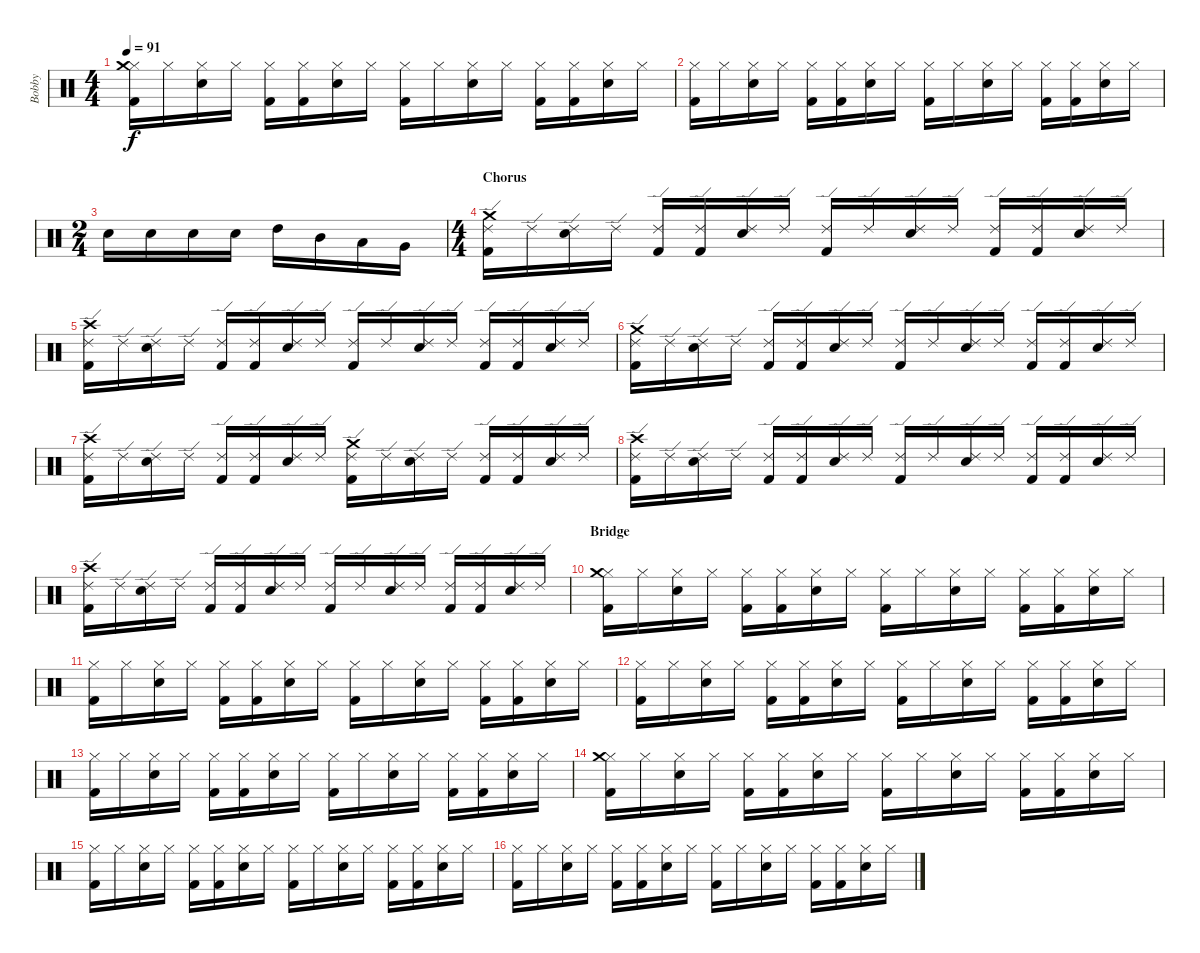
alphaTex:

\track ("Bobby" "Bobby") {instrument percussion}
\staff {score}
\articulation defaults
\ts (4 4)
\tempo 91
\clef neutral
\ks c
("Hi-Hat (closed)" "Crash medium (hit)" "Kick (hit) 2").16{dy f} "Hi-Hat (closed)".16 ("Hi-Hat (closed)" "Snare (hit) 2").16 "Hi-Hat (closed)".16 ("Hi-Hat (closed)" "Kick (hit) 2").16 ("Hi-Hat (closed)" "Kick (hit) 2").16 ("Hi-Hat (closed)" "Snare (hit) 2").16 "Hi-Hat (closed)".16 ("Hi-Hat (closed)" "Kick (hit) 2").16 "Hi-Hat (closed)".16 ("Hi-Hat (closed)" "Snare (hit) 2").16 "Hi-Hat (closed)".16 ("Hi-Hat (closed)" "Kick (hit) 2").16 ("Hi-Hat (closed)" "Kick (hit) 2").16 ("Hi-Hat (closed)" "Snare (hit) 2").16 "Hi-Hat (closed)".16 |
("Hi-Hat (closed)" "Kick (hit) 2").16 "Hi-Hat (closed)".16 ("Hi-Hat (closed)" "Snare (hit) 2").16 "Hi-Hat (closed)".16 ("Hi-Hat (closed)" "Kick (hit) 2").16 ("Hi-Hat (closed)" "Kick (hit) 2").16 ("Hi-Hat (closed)" "Snare (hit) 2").16 "Hi-Hat (closed)".16 ("Hi-Hat (closed)" "Kick (hit) 2").16 "Hi-Hat (closed)".16 ("Hi-Hat (closed)" "Snare (hit) 2").16 "Hi-Hat (closed)".16 ("Hi-Hat (closed)" "Kick (hit) 2").16 ("Hi-Hat (closed)" "Kick (hit) 2").16 ("Hi-Hat (closed)" "Snare (hit) 2").16 "Hi-Hat (closed)".16 |
\ts (2 4)
"Snare (hit) 2".16 "Snare (hit) 2".16 "Snare (hit) 2".16 "Snare (hit) 2".16 "High Tom (hit)".16 "Mid Tom (hit)".16 "Low Tom (hit)".16 "Very Low Tom (hit)".16 |
\ts (4 4)
\section ("" "Chorus")
("Ride (edge) 2" "Crash medium (hit)" "Kick (hit) 2").16 "Ride (edge) 2".16 ("Ride (edge) 2" "Snare (hit) 2").16 "Ride (edge) 2".16 ("Ride (edge) 2" "Kick (hit) 2").16 ("Ride (edge) 2" "Kick (hit) 2").16 ("Ride (edge) 2" "Snare (hit) 2").16 "Ride (edge) 2".16 ("Ride (edge) 2" "Kick (hit) 2").16 "Ride (edge) 2".16 ("Ride (edge) 2" "Snare (hit) 2").16 "Ride (edge) 2".16 ("Ride (edge) 2" "Kick (hit) 2").16 ("Ride (edge) 2" "Kick (hit) 2").16 ("Ride (edge) 2" "Snare (hit) 2").16 "Ride (edge) 2".16 |
("Ride (edge) 2" "Crash high (hit)" "Kick (hit) 2").16 "Ride (edge) 2".16 ("Ride (edge) 2" "Snare (hit) 2").16 "Ride (edge) 2".16 ("Ride (edge) 2" "Kick (hit) 2").16 ("Ride (edge) 2" "Kick (hit) 2").16 ("Ride (edge) 2" "Snare (hit) 2").16 "Ride (edge) 2".16 ("Ride (edge) 2" "Kick (hit) 2").16 "Ride (edge) 2".16 ("Ride (edge) 2" "Snare (hit) 2").16 "Ride (edge) 2".16 ("Ride (edge) 2" "Kick (hit) 2").16 ("Ride (edge) 2" "Kick (hit) 2").16 ("Ride (edge) 2" "Snare (hit) 2").16 "Ride (edge) 2".16 |
("Ride (edge) 2" "Crash medium (hit)" "Kick (hit) 2").16 "Ride (edge) 2".16 ("Ride (edge) 2" "Snare (hit) 2").16 "Ride (edge) 2".16 ("Ride (edge) 2" "Kick (hit) 2").16 ("Ride (edge) 2" "Kick (hit) 2").16 ("Ride (edge) 2" "Snare (hit) 2").16 "Ride (edge) 2".16 ("Ride (edge) 2" "Kick (hit) 2").16 "Ride (edge) 2".16 ("Ride (edge) 2" "Snare (hit) 2").16 "Ride (edge) 2".16 ("Ride (edge) 2" "Kick (hit) 2").16 ("Ride (edge) 2" "Kick (hit) 2").16 ("Ride (edge) 2" "Snare (hit) 2").16 "Ride (edge) 2".16 |
("Ride (edge) 2" "Crash high (hit)" "Kick (hit) 2").16 "Ride (edge) 2".16 ("Ride (edge) 2" "Snare (hit) 2").16 "Ride (edge) 2".16 ("Ride (edge) 2" "Kick (hit) 2").16 ("Ride (edge) 2" "Kick (hit) 2").16 ("Ride (edge) 2" "Snare (hit) 2").16 "Ride (edge) 2".16 ("Ride (edge) 2" "Crash medium (hit)" "Kick (hit) 2").16 "Ride (edge) 2".16 ("Ride (edge) 2" "Snare (hit) 2").16 "Ride (edge) 2".16 ("Ride (edge) 2" "Kick (hit) 2").16 ("Ride (edge) 2" "Kick (hit) 2").16 ("Ride (edge) 2" "Snare (hit) 2").16 "Ride (edge) 2".16 |
("Ride (edge) 2" "Crash high (hit)" "Kick (hit) 2").16 "Ride (edge) 2".16 ("Ride (edge) 2" "Snare (hit) 2").16 "Ride (edge) 2".16 ("Ride (edge) 2" "Kick (hit) 2").16 ("Ride (edge) 2" "Kick (hit) 2").16 ("Ride (edge) 2" "Snare (hit) 2").16 "Ride (edge) 2".16 ("Ride (edge) 2" "Kick (hit) 2").16 "Ride (edge) 2".16 ("Ride (edge) 2" "Snare (hit) 2").16 "Ride (edge) 2".16 ("Ride (edge) 2" "Kick (hit) 2").16 ("Ride (edge) 2" "Kick (hit) 2").16 ("Ride (edge) 2" "Snare (hit) 2").16 "Ride (edge) 2".16 |
("Ride (edge) 2" "Crash high (hit)" "Kick (hit) 2").16 "Ride (edge) 2".16 ("Ride (edge) 2" "Snare (hit) 2").16 "Ride (edge) 2".16 ("Ride (edge) 2" "Kick (hit) 2").16 ("Ride (edge) 2" "Kick (hit) 2").16 ("Ride (edge) 2" "Snare (hit) 2").16 "Ride (edge) 2".16 ("Ride (edge) 2" "Kick (hit) 2").16 "Ride (edge) 2".16 ("Ride (edge) 2" "Snare (hit) 2").16 "Ride (edge) 2".16 ("Ride (edge) 2" "Kick (hit) 2").16 ("Ride (edge) 2" "Kick (hit) 2").16 ("Ride (edge) 2" "Snare (hit) 2").16 "Ride (edge) 2".16 |
\section ("" "Bridge")
("Hi-Hat (closed)" "Crash medium (hit)" "Kick (hit) 2").16 "Hi-Hat (closed)".16 ("Hi-Hat (closed)" "Snare (hit) 2").16 "Hi-Hat (closed)".16 ("Hi-Hat (closed)" "Kick (hit) 2").16 ("Hi-Hat (closed)" "Kick (hit) 2").16 ("Hi-Hat (closed)" "Snare (hit) 2").16 "Hi-Hat (closed)".16 ("Hi-Hat (closed)" "Kick (hit) 2").16 "Hi-Hat (closed)".16 ("Hi-Hat (closed)" "Snare (hit) 2").16 "Hi-Hat (closed)".16 ("Hi-Hat (closed)" "Kick (hit) 2").16 ("Hi-Hat (closed)" "Kick (hit) 2").16 ("Hi-Hat (closed)" "Snare (hit) 2").16 "Hi-Hat (closed)".16 |
("Hi-Hat (closed)" "Kick (hit) 2").16 "Hi-Hat (closed)".16 ("Hi-Hat (closed)" "Snare (hit) 2").16 "Hi-Hat (closed)".16 ("Hi-Hat (closed)" "Kick (hit) 2").16 ("Hi-Hat (closed)" "Kick (hit) 2").16 ("Hi-Hat (closed)" "Snare (hit) 2").16 "Hi-Hat (closed)".16 ("Hi-Hat (closed)" "Kick (hit) 2").16 "Hi-Hat (closed)".16 ("Hi-Hat (closed)" "Snare (hit) 2").16 "Hi-Hat (closed)".16 ("Hi-Hat (closed)" "Kick (hit) 2").16 ("Hi-Hat (closed)" "Kick (hit) 2").16 ("Hi-Hat (closed)" "Snare (hit) 2").16 "Hi-Hat (closed)".16 |
("Hi-Hat (closed)" "Kick (hit) 2").16 "Hi-Hat (closed)".16 ("Hi-Hat (closed)" "Snare (hit) 2").16 "Hi-Hat (closed)".16 ("Hi-Hat (closed)" "Kick (hit) 2").16 ("Hi-Hat (closed)" "Kick (hit) 2").16 ("Hi-Hat (closed)" "Snare (hit) 2").16 "Hi-Hat (closed)".16 ("Hi-Hat (closed)" "Kick (hit) 2").16 "Hi-Hat (closed)".16 ("Hi-Hat (closed)" "Snare (hit) 2").16 "Hi-Hat (closed)".16 ("Hi-Hat (closed)" "Kick (hit) 2").16 ("Hi-Hat (closed)" "Kick (hit) 2").16 ("Hi-Hat (closed)" "Snare (hit) 2").16 "Hi-Hat (closed)".16 |
("Hi-Hat (closed)" "Kick (hit) 2").16 "Hi-Hat (closed)".16 ("Hi-Hat (closed)" "Snare (hit) 2").16 "Hi-Hat (closed)".16 ("Hi-Hat (closed)" "Kick (hit) 2").16 ("Hi-Hat (closed)" "Kick (hit) 2").16 ("Hi-Hat (closed)" "Snare (hit) 2").16 "Hi-Hat (closed)".16 ("Hi-Hat (closed)" "Kick (hit) 2").16 "Hi-Hat (closed)".16 ("Hi-Hat (closed)" "Snare (hit) 2").16 "Hi-Hat (closed)".16 ("Hi-Hat (closed)" "Kick (hit) 2").16 ("Hi-Hat (closed)" "Kick (hit) 2").16 ("Hi-Hat (closed)" "Snare (hit) 2").16 "Hi-Hat (closed)".16 |
("Hi-Hat (closed)" "Crash medium (hit)" "Kick (hit) 2").16 "Hi-Hat (closed)".16 ("Hi-Hat (closed)" "Snare (hit) 2").16 "Hi-Hat (closed)".16 ("Hi-Hat (closed)" "Kick (hit) 2").16 ("Hi-Hat (closed)" "Kick (hit) 2").16 ("Hi-Hat (closed)" "Snare (hit) 2").16 "Hi-Hat (closed)".16 ("Hi-Hat (closed)" "Kick (hit) 2").16 "Hi-Hat (closed)".16 ("Hi-Hat (closed)" "Snare (hit) 2").16 "Hi-Hat (closed)".16 ("Hi-Hat (closed)" "Kick (hit) 2").16 ("Hi-Hat (closed)" "Kick (hit) 2").16 ("Hi-Hat (closed)" "Snare (hit) 2").16 "Hi-Hat (closed)".16 |
("Hi-Hat (closed)" "Kick (hit) 2").16 "Hi-Hat (closed)".16 ("Hi-Hat (closed)" "Snare (hit) 2").16 "Hi-Hat (closed)".16 ("Hi-Hat (closed)" "Kick (hit) 2").16 ("Hi-Hat (closed)" "Kick (hit) 2").16 ("Hi-Hat (closed)" "Snare (hit) 2").16 "Hi-Hat (closed)".16 ("Hi-Hat (closed)" "Kick (hit) 2").16 "Hi-Hat (closed)".16 ("Hi-Hat (closed)" "Snare (hit) 2").16 "Hi-Hat (closed)".16 ("Hi-Hat (closed)" "Kick (hit) 2").16 ("Hi-Hat (closed)" "Kick (hit) 2").16 ("Hi-Hat (closed)" "Snare (hit) 2").16 "Hi-Hat (closed)".16 |
("Hi-Hat (closed)" "Kick (hit) 2").16 "Hi-Hat (closed)".16 ("Hi-Hat (closed)" "Snare (hit) 2").16 "Hi-Hat (closed)".16 ("Hi-Hat (closed)" "Kick (hit) 2").16 ("Hi-Hat (closed)" "Kick (hit) 2").16 ("Hi-Hat (closed)" "Snare (hit) 2").16 "Hi-Hat (closed)".16 ("Hi-Hat (closed)" "Kick (hit) 2").16 "Hi-Hat (closed)".16 ("Hi-Hat (closed)" "Snare (hit) 2").16 "Hi-Hat (closed)".16 ("Hi-Hat (closed)" "Kick (hit) 2").16 ("Hi-Hat (closed)" "Kick (hit) 2").16 ("Hi-Hat (closed)" "Snare (hit) 2").16 "Hi-Hat (closed)".16
